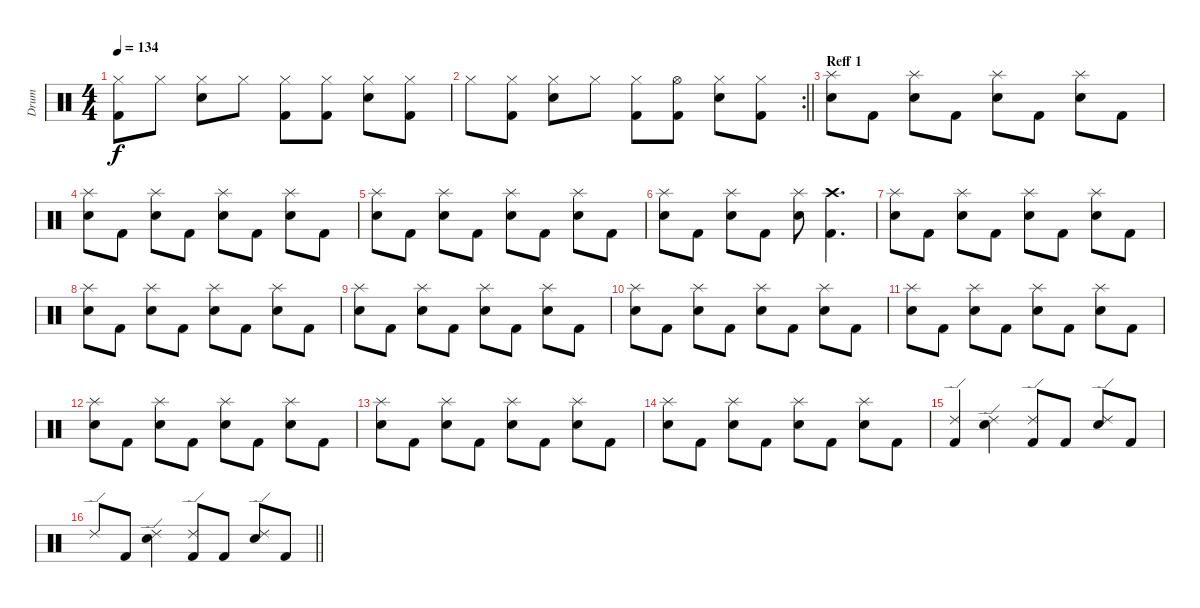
\track ("Drum" "Drum") {instrument percussion}
\staff {score}
\articulation defaults
\ts (4 4)
\tempo 134
\clef neutral
\ks c
("Kick (hit) 2" "Hi-Hat (closed)").8{dy f} "Hi-Hat (closed)".8 ("Hi-Hat (closed)" "Electric Snare (hit)").8 "Hi-Hat (closed)".8 ("Hi-Hat (closed)" "Kick (hit) 2").8 ("Hi-Hat (closed)" "Kick (hit) 2").8 ("Electric Snare (hit)" "Hi-Hat (closed)").8 ("Hi-Hat (closed)" "Kick (hit) 2").8 |
\rc 2
\barLineRight lightlight "Hi-Hat (closed)".8
("Hi-Hat (closed)" "Kick (hit) 2").8 ("Electric Snare (hit)" "Hi-Hat (closed)").8 "Hi-Hat (closed)".8 ("Kick (hit) 2" "Hi-Hat (closed)").8 ("Hi-Hat (open)" "Kick (hit) 2").8 ("Hi-Hat (closed)" "Electric Snare (hit)").8 ("Kick (hit) 2" "Hi-Hat (closed)").8 |
\section ("" "Reff 1")
("Electric Snare (hit)" "Splash (hit)").8 "Kick (hit) 2".8 ("Electric Snare (hit)" "Splash (hit)").8 "Kick (hit) 2".8 ("Electric Snare (hit)" "Splash (hit)").8 "Kick (hit) 2".8 ("Electric Snare (hit)" "Splash (hit)").8 "Kick (hit) 2".8 |
("Electric Snare (hit)" "Splash (hit)").8 "Kick (hit) 2".8 ("Electric Snare (hit)" "Splash (hit)").8 "Kick (hit) 2".8 ("Electric Snare (hit)" "Splash (hit)").8 "Kick (hit) 2".8 ("Electric Snare (hit)" "Splash (hit)").8 "Kick (hit) 2".8 |
("Electric Snare (hit)" "Splash (hit)").8 "Kick (hit) 2".8 ("Electric Snare (hit)" "Splash (hit)").8 "Kick (hit) 2".8 ("Electric Snare (hit)" "Splash (hit)").8 "Kick (hit) 2".8 ("Electric Snare (hit)" "Splash (hit)").8 "Kick (hit) 2".8 |
("Electric Snare (hit)" "Splash (hit)").8 "Kick (hit) 2".8 ("Electric Snare (hit)" "Splash (hit)").8 "Kick (hit) 2".8 ("Electric Snare (hit)" "Splash (hit)").8 ("Kick (hit) 2" "Crash high (hit)").4{d} |
("Electric Snare (hit)" "Splash (hit)").8 "Kick (hit) 2".8 ("Electric Snare (hit)" "Splash (hit)").8 "Kick (hit) 2".8 ("Electric Snare (hit)" "Splash (hit)").8 "Kick (hit) 2".8 ("Electric Snare (hit)" "Splash (hit)").8 "Kick (hit) 2".8 |
("Electric Snare (hit)" "Splash (hit)").8 "Kick (hit) 2".8 ("Electric Snare (hit)" "Splash (hit)").8 "Kick (hit) 2".8 ("Electric Snare (hit)" "Splash (hit)").8 "Kick (hit) 2".8 ("Electric Snare (hit)" "Splash (hit)").8 "Kick (hit) 2".8 |
("Electric Snare (hit)" "Splash (hit)").8 "Kick (hit) 2".8 ("Electric Snare (hit)" "Splash (hit)").8 "Kick (hit) 2".8 ("Electric Snare (hit)" "Splash (hit)").8 "Kick (hit) 2".8 ("Electric Snare (hit)" "Splash (hit)").8 "Kick (hit) 2".8 |
("Electric Snare (hit)" "Splash (hit)").8 "Kick (hit) 2".8 ("Electric Snare (hit)" "Splash (hit)").8 "Kick (hit) 2".8 ("Electric Snare (hit)" "Splash (hit)").8 "Kick (hit) 2".8 ("Electric Snare (hit)" "Splash (hit)").8 "Kick (hit) 2".8 |
("Electric Snare (hit)" "Splash (hit)").8 "Kick (hit) 2".8 ("Electric Snare (hit)" "Splash (hit)").8 "Kick (hit) 2".8 ("Electric Snare (hit)" "Splash (hit)").8 "Kick (hit) 2".8 ("Electric Snare (hit)" "Splash (hit)").8 "Kick (hit) 2".8 |
("Electric Snare (hit)" "Splash (hit)").8 "Kick (hit) 2".8 ("Electric Snare (hit)" "Splash (hit)").8 "Kick (hit) 2".8 ("Electric Snare (hit)" "Splash (hit)").8 "Kick (hit) 2".8 ("Electric Snare (hit)" "Splash (hit)").8 "Kick (hit) 2".8 |
("Electric Snare (hit)" "Splash (hit)").8 "Kick (hit) 2".8 ("Electric Snare (hit)" "Splash (hit)").8 "Kick (hit) 2".8 ("Electric Snare (hit)" "Splash (hit)").8 "Kick (hit) 2".8 ("Electric Snare (hit)" "Splash (hit)").8 "Kick (hit) 2".8 |
("Electric Snare (hit)" "Splash (hit)").8 "Kick (hit) 2".8 ("Electric Snare (hit)" "Splash (hit)").8 "Kick (hit) 2".8 ("Electric Snare (hit)" "Splash (hit)").8 "Kick (hit) 2".8 ("Electric Snare (hit)" "Splash (hit)").8 "Kick (hit) 2".8 |
("Kick (hit) 2" "Ride (edge) 2").4 ("Electric Snare (hit)" "Ride (edge) 2").4 ("Ride (edge) 2" "Kick (hit) 2").8 "Kick (hit) 2".8 ("Electric Snare (hit)" "Ride (edge) 2").8 "Kick (hit) 2".8 |
\barLineRight lightlight "Ride (edge) 2".8 "Kick (hit) 2".8
("Electric Snare (hit)" "Ride (edge) 2").4 ("Kick (hit) 2" "Ride (edge) 2").8 "Kick (hit) 2".8 ("Ride (edge) 2" "Electric Snare (hit)").8 "Kick (hit) 2".8
